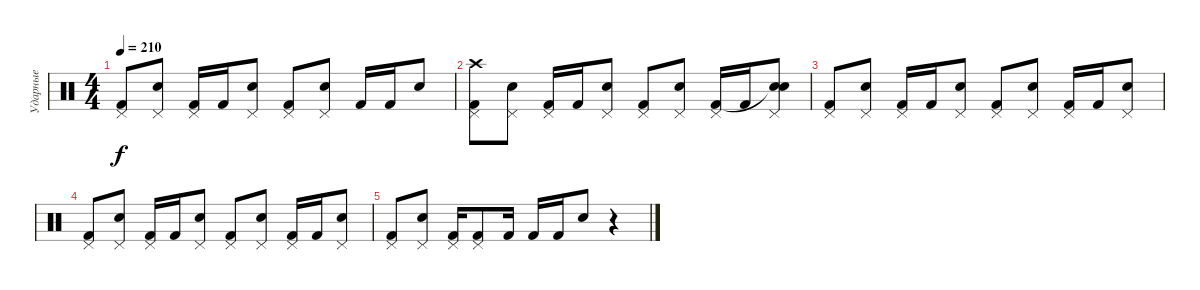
\track ("Ударные" "Ударные") {instrument percussion}
\staff {score}
\articulation defaults
\ts (4 4)
\tempo 210
\clef neutral
\ks c
("Pedal Hi-Hat (hit)" "Kick (hit) 2").8{dy f} ("Pedal Hi-Hat (hit)" "Snare (hit) 2").8 ("Pedal Hi-Hat (hit)" "Kick (hit) 2").16 "Kick (hit) 2".16 ("Pedal Hi-Hat (hit)" "Snare (hit) 2").8 ("Pedal Hi-Hat (hit)" "Kick (hit) 2").8 ("Pedal Hi-Hat (hit)" "Snare (hit) 2").8 "Kick (hit) 2".16 "Kick (hit) 2".16 "Snare (hit) 2".8 |
("Pedal Hi-Hat (hit)" "Crash high (hit)" "Kick (hit) 2").8 ("Pedal Hi-Hat (hit)" "Snare (hit) 2").8 ("Pedal Hi-Hat (hit)" "Kick (hit) 2").16 "Kick (hit) 2".16 ("Pedal Hi-Hat (hit)" "Snare (hit) 2").8 ("Pedal Hi-Hat (hit)" "Kick (hit) 2").8 ("Pedal Hi-Hat (hit)" "Snare (hit) 2").8 ("Pedal Hi-Hat (hit)" "Kick (hit) 2").16 "Kick (hit) 2".16 ("Pedal Hi-Hat (hit)" "Snare (hit)"{t} "Snare (hit) 2").8 |
("Pedal Hi-Hat (hit)" "Kick (hit) 2").8 ("Pedal Hi-Hat (hit)" "Snare (hit) 2").8 ("Pedal Hi-Hat (hit)" "Kick (hit) 2").16 "Kick (hit) 2".16 ("Pedal Hi-Hat (hit)" "Snare (hit) 2").8 ("Pedal Hi-Hat (hit)" "Kick (hit) 2").8 ("Pedal Hi-Hat (hit)" "Snare (hit) 2").8 ("Pedal Hi-Hat (hit)" "Kick (hit) 2").16 "Kick (hit) 2".16 ("Pedal Hi-Hat (hit)" "Snare (hit) 2").8 |
("Pedal Hi-Hat (hit)" "Kick (hit) 2").8 ("Pedal Hi-Hat (hit)" "Snare (hit) 2").8 ("Pedal Hi-Hat (hit)" "Kick (hit) 2").16 "Kick (hit) 2".16 ("Pedal Hi-Hat (hit)" "Snare (hit) 2").8 ("Pedal Hi-Hat (hit)" "Kick (hit) 2").8 ("Pedal Hi-Hat (hit)" "Snare (hit) 2").8 ("Pedal Hi-Hat (hit)" "Kick (hit) 2").16 "Kick (hit) 2".16 ("Pedal Hi-Hat (hit)" "Snare (hit) 2").8 |
("Pedal Hi-Hat (hit)" "Kick (hit) 2").8 ("Pedal Hi-Hat (hit)" "Snare (hit) 2").8 ("Pedal Hi-Hat (hit)" "Kick (hit) 2").16 ("Pedal Hi-Hat (hit)" "Kick (hit) 2").8 "Kick (hit) 2".16 "Kick (hit) 2".16 "Kick (hit) 2".16 "Snare (hit) 2".8 r.4
